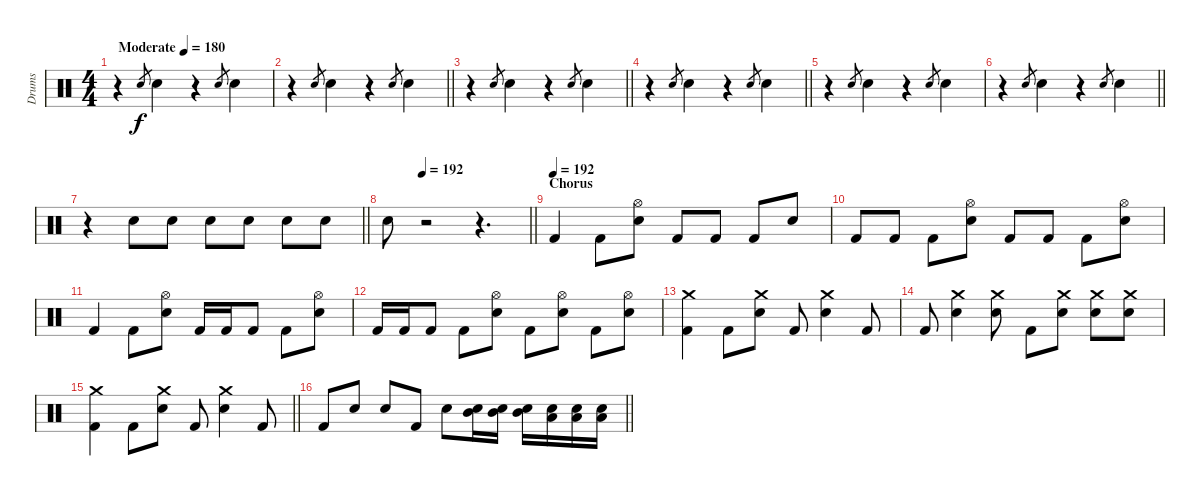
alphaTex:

\track ("Drums" "Drums") {instrument percussion}
\staff {score}
\articulation defaults
\ts (4 4)
\tempo (180 "Moderate")
\clef neutral
\ks c
r.4{dy f} "Electric Snare (hit)".8{gr} "Electric Snare (hit)".4 r.4 "Electric Snare (hit)".8{gr} "Electric Snare (hit)".4 |
\barLineRight lightlight
r.4 "Electric Snare (hit)".8{gr} "Electric Snare (hit)".4 r.4 "Electric Snare (hit)".8{gr} "Electric Snare (hit)".4 |
\barLineRight lightlight
r.4 "Electric Snare (hit)".8{gr} "Electric Snare (hit)".4 r.4 "Electric Snare (hit)".8{gr} "Electric Snare (hit)".4 |
\barLineRight lightlight
r.4 "Electric Snare (hit)".8{gr} "Electric Snare (hit)".4 r.4 "Electric Snare (hit)".8{gr} "Electric Snare (hit)".4 |
r.4 "Electric Snare (hit)".8{gr} "Electric Snare (hit)".4 r.4 "Electric Snare (hit)".8{gr} "Electric Snare (hit)".4 |
\barLineRight lightlight
r.4 "Electric Snare (hit)".8{gr} "Electric Snare (hit)".4 r.4 "Electric Snare (hit)".8{gr} "Electric Snare (hit)".4 |
\barLineRight lightlight
r.4 "Electric Snare (hit)".8 "Electric Snare (hit)".8 "Electric Snare (hit)".8 "Electric Snare (hit)".8 "Electric Snare (hit)".8 "Electric Snare (hit)".8 |
\tempo (192 0.25)
\barLineRight lightlight "Electric Snare (hit)".8
r.2 r.4{d} |
\section ("" "Chorus")
\tempo (192)
"Kick (hit) 2".4 "Kick (hit) 2".8 ("Electric Snare (hit)" "Hi-Hat (open)").8 "Kick (hit) 2".8 "Kick (hit) 2".8 "Kick (hit) 2".8 "Electric Snare (hit)".8 |
"Kick (hit) 2".8 "Kick (hit) 2".8 "Kick (hit) 2".8 ("Electric Snare (hit)" "Hi-Hat (open)").8 "Kick (hit) 2".8 "Kick (hit) 2".8 "Kick (hit) 2".8 ("Electric Snare (hit)" "Hi-Hat (open)").8 |
"Kick (hit) 2".4 "Kick (hit) 2".8 ("Electric Snare (hit)" "Hi-Hat (open)").8 "Kick (hit) 2".16 "Kick (hit) 2".16 "Kick (hit) 2".8 "Kick (hit) 2".8 ("Electric Snare (hit)" "Hi-Hat (open)").8 |
"Kick (hit) 2".16 "Kick (hit) 2".16 "Kick (hit) 2".8 "Kick (hit) 2".8 ("Hi-Hat (open)" "Electric Snare (hit)").8 "Kick (hit) 2".8 ("Hi-Hat (open)" "Electric Snare (hit)").8 "Kick (hit) 2".8 ("Hi-Hat (open)" "Electric Snare (hit)").8 |
("Kick (hit) 2" "Crash medium (hit)").4 "Kick (hit) 2".8 ("Electric Snare (hit)" "Crash medium (hit)").8 "Kick (hit) 2".8 ("Electric Snare (hit)" "Crash medium (hit)").4 "Kick (hit) 2".8 |
"Kick (hit) 2".8 ("Electric Snare (hit)" "Crash medium (hit)").4 ("Electric Snare (hit)" "Crash medium (hit)").8 "Kick (hit) 2".8 ("Electric Snare (hit)" "Crash medium (hit)").8 ("Electric Snare (hit)" "Crash medium (hit)").8 ("Electric Snare (hit)" "Crash medium (hit)").8 |
\barLineRight lightlight
("Kick (hit) 2" "Crash medium (hit)").4 "Kick (hit) 2".8 ("Electric Snare (hit)" "Crash medium (hit)").8 "Kick (hit) 2".8 ("Electric Snare (hit)" "Crash medium (hit)").4 "Kick (hit) 2".8 |
\barLineRight lightlight "Kick (hit) 2".8 "Electric Snare (hit)".8 "Electric Snare (hit)".8 "Kick (hit) 2".8 "Electric Snare (hit)".8
("Electric Snare (hit)" "Mid Tom (hit)").16 ("Electric Snare (hit)" "Mid Tom (hit)").16 ("Electric Snare (hit)" "Mid Tom (hit)").16 ("Electric Snare (hit)" "Low Tom (hit)").16 ("Electric Snare (hit)" "Low Tom (hit)").16 ("Electric Snare (hit)" "Low Tom (hit)").16
